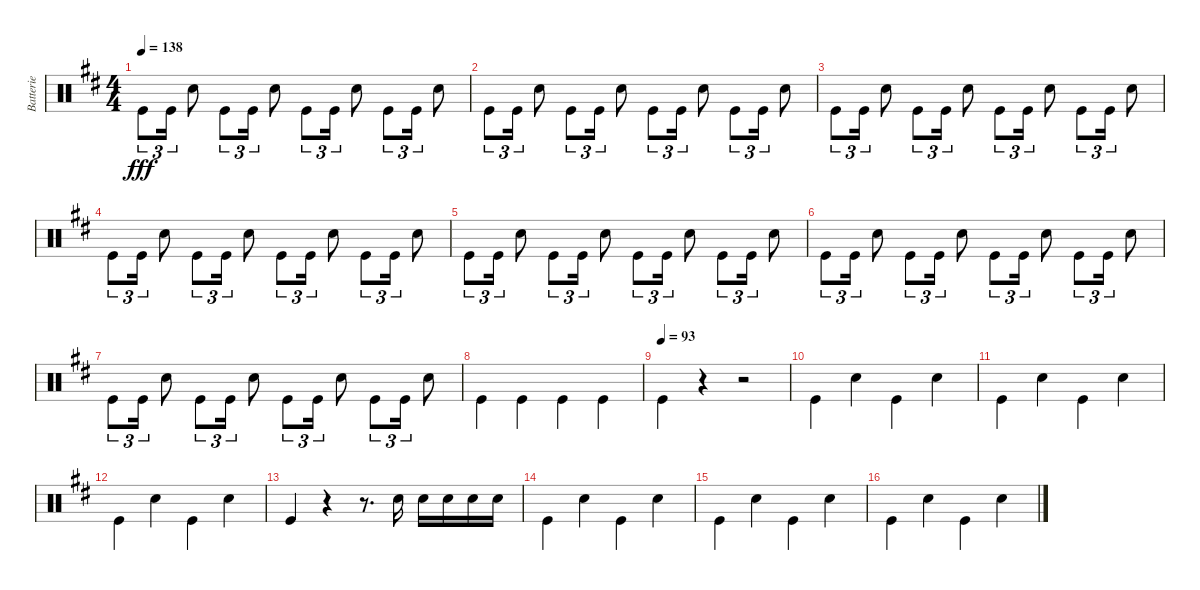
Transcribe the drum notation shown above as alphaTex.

\track ("Batterie" "Batterie") {instrument percussion}
\staff {score}
\articulation defaults
\ts (4 4)
\tempo 138
\clef neutral
\ks d "Kick (hit)".8{tu (3 2) dy fff beam Down} "Kick (hit)".16{tu (3 2) beam Down} "Snare (hit) 2".8{beam Down} "Kick (hit)".8{tu (3 2) beam Down} "Kick (hit)".16{tu (3 2) beam Down} "Snare (hit) 2".8{beam Down} "Kick (hit)".8{tu (3 2) beam Down} "Kick (hit)".16{tu (3 2) beam Down} "Snare (hit) 2".8{beam Down} "Kick (hit)".8{tu (3 2) beam Down} "Kick (hit)".16{tu (3 2) beam Down} "Snare (hit) 2".8{beam Down}
|
"Kick (hit)".8{tu (3 2) beam Down} "Kick (hit)".16{tu (3 2) beam Down} "Snare (hit) 2".8{beam Down} "Kick (hit)".8{tu (3 2) beam Down} "Kick (hit)".16{tu (3 2) beam Down} "Snare (hit) 2".8{beam Down} "Kick (hit)".8{tu (3 2) beam Down} "Kick (hit)".16{tu (3 2) beam Down} "Snare (hit) 2".8{beam Down} "Kick (hit)".8{tu (3 2) beam Down} "Kick (hit)".16{tu (3 2) beam Down} "Snare (hit) 2".8{beam Down} |
"Kick (hit)".8{tu (3 2) beam Down} "Kick (hit)".16{tu (3 2) beam Down} "Snare (hit) 2".8{beam Down} "Kick (hit)".8{tu (3 2) beam Down} "Kick (hit)".16{tu (3 2) beam Down} "Snare (hit) 2".8{beam Down} "Kick (hit)".8{tu (3 2) beam Down} "Kick (hit)".16{tu (3 2) beam Down} "Snare (hit) 2".8{beam Down} "Kick (hit)".8{tu (3 2) beam Down} "Kick (hit)".16{tu (3 2) beam Down} "Snare (hit) 2".8{beam Down} |
"Kick (hit)".8{tu (3 2) beam Down} "Kick (hit)".16{tu (3 2) beam Down} "Snare (hit) 2".8{beam Down} "Kick (hit)".8{tu (3 2) beam Down} "Kick (hit)".16{tu (3 2) beam Down} "Snare (hit) 2".8{beam Down} "Kick (hit)".8{tu (3 2) beam Down} "Kick (hit)".16{tu (3 2) beam Down} "Snare (hit) 2".8{beam Down} "Kick (hit)".8{tu (3 2) beam Down} "Kick (hit)".16{tu (3 2) beam Down} "Snare (hit) 2".8{beam Down} |
"Kick (hit)".8{tu (3 2) beam Down} "Kick (hit)".16{tu (3 2) beam Down} "Snare (hit) 2".8{beam Down} "Kick (hit)".8{tu (3 2) beam Down} "Kick (hit)".16{tu (3 2) beam Down} "Snare (hit) 2".8{beam Down} "Kick (hit)".8{tu (3 2) beam Down} "Kick (hit)".16{tu (3 2) beam Down} "Snare (hit) 2".8{beam Down} "Kick (hit)".8{tu (3 2) beam Down} "Kick (hit)".16{tu (3 2) beam Down} "Snare (hit) 2".8{beam Down} |
"Kick (hit)".8{tu (3 2) beam Down} "Kick (hit)".16{tu (3 2) beam Down} "Snare (hit) 2".8{beam Down} "Kick (hit)".8{tu (3 2) beam Down} "Kick (hit)".16{tu (3 2) beam Down} "Snare (hit) 2".8{beam Down} "Kick (hit)".8{tu (3 2) beam Down} "Kick (hit)".16{tu (3 2) beam Down} "Snare (hit) 2".8{beam Down} "Kick (hit)".8{tu (3 2) beam Down} "Kick (hit)".16{tu (3 2) beam Down} "Snare (hit) 2".8{beam Down} |
"Kick (hit)".8{tu (3 2) beam Down} "Kick (hit)".16{tu (3 2) beam Down} "Snare (hit) 2".8{beam Down} "Kick (hit)".8{tu (3 2) beam Down} "Kick (hit)".16{tu (3 2) beam Down} "Snare (hit) 2".8{beam Down} "Kick (hit)".8{tu (3 2) beam Down} "Kick (hit)".16{tu (3 2) beam Down} "Snare (hit) 2".8{beam Down} "Kick (hit)".8{tu (3 2) beam Down} "Kick (hit)".16{tu (3 2) beam Down} "Snare (hit) 2".8{beam Down} |
"Kick (hit)".4{beam Down} "Kick (hit)".4{beam Down} "Kick (hit)".4{beam Down} "Kick (hit)".4{beam Down} |
\tempo (93)
"Kick (hit)".4{beam Down} r.4 r.2 |
"Kick (hit)".4{beam Down} "Snare (hit) 2".4{beam Down} "Kick (hit)".4{beam Down} "Snare (hit) 2".4{beam Down} |
"Kick (hit)".4{beam Down} "Snare (hit) 2".4{beam Down} "Kick (hit)".4{beam Down} "Snare (hit) 2".4{beam Down} |
"Kick (hit)".4{beam Down} "Snare (hit) 2".4{beam Down} "Kick (hit)".4{beam Down} "Snare (hit) 2".4{beam Down} |
"Kick (hit)".4 r.4 r.8{d} "Snare (hit) 2".16 "Snare (hit) 2".16 "Snare (hit) 2".16 "Snare (hit) 2".16 "Snare (hit) 2".16 |
"Kick (hit)".4{beam Down} "Electric Snare (hit)".4 "Kick (hit)".4{beam Down} "Electric Snare (hit)".4 |
"Kick (hit)".4{beam Down} "Electric Snare (hit)".4 "Kick (hit)".4{beam Down} "Electric Snare (hit)".4 |
"Kick (hit)".4{beam Down} "Electric Snare (hit)".4 "Kick (hit)".4{beam Down} "Electric Snare (hit)".4
